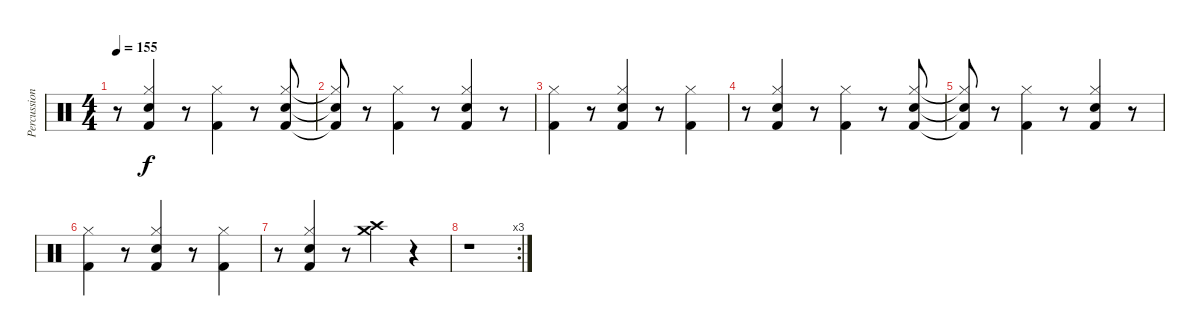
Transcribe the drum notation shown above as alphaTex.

\track ("Percussion" "Percussion") {instrument percussion}
\staff {score}
\articulation defaults
\ts (4 4)
\tempo 155
\clef neutral
\ks c
r.8{dy f} ("Snare (hit) 2" "Hi-Hat (closed)" "Kick (hit) 2").4 r.8 ("Hi-Hat (closed)" "Kick (hit) 2").4 r.8 ("Snare (hit) 2" "Hi-Hat (closed)" "Kick (hit) 2").8 |
("Snare (hit) 2"{t} "Hi-Hat (closed)"{t} "Kick (hit) 2"{t}).8 r.8 ("Hi-Hat (closed)" "Kick (hit) 2").4 r.8 ("Snare (hit) 2" "Hi-Hat (closed)" "Kick (hit) 2").4 r.8 |
("Hi-Hat (closed)" "Kick (hit) 2").4 r.8 ("Snare (hit) 2" "Hi-Hat (closed)" "Kick (hit) 2").4 r.8 ("Hi-Hat (closed)" "Kick (hit) 2").4 |
r.8 ("Snare (hit) 2" "Hi-Hat (closed)" "Kick (hit) 2").4 r.8 ("Hi-Hat (closed)" "Kick (hit) 2").4 r.8 ("Snare (hit) 2" "Hi-Hat (closed)" "Kick (hit) 2").8 |
("Snare (hit) 2"{t} "Hi-Hat (closed)"{t} "Kick (hit) 2"{t}).8 r.8 ("Hi-Hat (closed)" "Kick (hit) 2").4 r.8 ("Snare (hit) 2" "Hi-Hat (closed)" "Kick (hit) 2").4 r.8 |
("Hi-Hat (closed)" "Kick (hit) 2").4 r.8 ("Snare (hit) 2" "Hi-Hat (closed)" "Kick (hit) 2").4 r.8 ("Hi-Hat (closed)" "Kick (hit) 2").4 |
r.8 ("Snare (hit) 2" "Hi-Hat (closed)" "Kick (hit) 2").4 r.8 ("Crash high (hit)" "Crash medium (hit)").4 r.4 |
\rc 3
r.1
